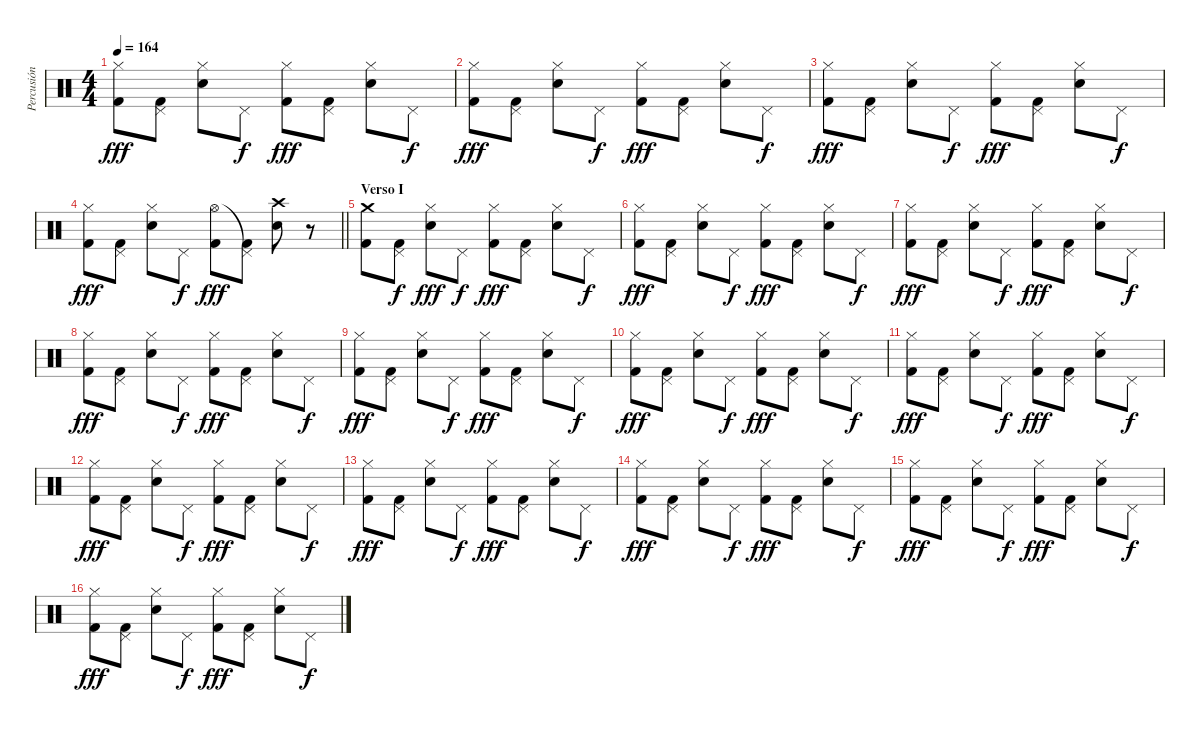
\track ("Percusión" "Percusión") {instrument percussion}
\staff {score}
\articulation defaults
\ts (4 4)
\tempo 164
\clef neutral
\ks c
("Hi-Hat (closed)" "Kick (hit) 2").8{dy fff} ("Pedal Hi-Hat (hit)" "Kick (hit) 2").8 ("Hi-Hat (closed)" "Snare (hit) 2").8 "Pedal Hi-Hat (hit)".8{dy f} ("Hi-Hat (closed)" "Kick (hit) 2").8{dy fff} ("Pedal Hi-Hat (hit)" "Kick (hit) 2").8 ("Hi-Hat (closed)" "Snare (hit) 2").8 "Pedal Hi-Hat (hit)".8{dy f} |
("Hi-Hat (closed)" "Kick (hit) 2").8{dy fff} ("Pedal Hi-Hat (hit)" "Kick (hit) 2").8 ("Hi-Hat (closed)" "Snare (hit) 2").8 "Pedal Hi-Hat (hit)".8{dy f} ("Hi-Hat (closed)" "Kick (hit) 2").8{dy fff} ("Pedal Hi-Hat (hit)" "Kick (hit) 2").8 ("Hi-Hat (closed)" "Snare (hit) 2").8 "Pedal Hi-Hat (hit)".8{dy f} |
("Hi-Hat (closed)" "Kick (hit) 2").8{dy fff} ("Pedal Hi-Hat (hit)" "Kick (hit) 2").8 ("Hi-Hat (closed)" "Snare (hit) 2").8 "Pedal Hi-Hat (hit)".8{dy f} ("Hi-Hat (closed)" "Kick (hit) 2").8{dy fff} ("Pedal Hi-Hat (hit)" "Kick (hit) 2").8 ("Hi-Hat (closed)" "Snare (hit) 2").8 "Pedal Hi-Hat (hit)".8{dy f} |
\barLineRight lightlight
("Hi-Hat (closed)" "Kick (hit) 2").8{dy fff} ("Pedal Hi-Hat (hit)" "Kick (hit) 2").8 ("Hi-Hat (closed)" "Snare (hit) 2").8 "Pedal Hi-Hat (hit)".8{dy f} ("Hi-Hat (open)" "Kick (hit) 2").8{dy fff} ("Pedal Hi-Hat (hit)"{t} "Kick (hit) 2").8 ("Crash high (hit)" "Snare (hit) 2").8 r.8 |
\section ("" "Verso I")
("Crash medium (hit)" "Kick (hit) 2").8 ("Pedal Hi-Hat (hit)" "Kick (hit) 2").8{dy f} ("Hi-Hat (closed)" "Snare (hit) 2").8{dy fff} "Pedal Hi-Hat (hit)".8{dy f} ("Hi-Hat (closed)" "Kick (hit) 2").8{dy fff} ("Pedal Hi-Hat (hit)" "Kick (hit) 2").8 ("Hi-Hat (closed)" "Snare (hit) 2").8 "Pedal Hi-Hat (hit)".8{dy f} |
("Hi-Hat (closed)" "Kick (hit) 2").8{dy fff} ("Pedal Hi-Hat (hit)" "Kick (hit) 2").8 ("Hi-Hat (closed)" "Snare (hit) 2").8 "Pedal Hi-Hat (hit)".8{dy f} ("Hi-Hat (closed)" "Kick (hit) 2").8{dy fff} ("Pedal Hi-Hat (hit)" "Kick (hit) 2").8 ("Hi-Hat (closed)" "Snare (hit) 2").8 "Pedal Hi-Hat (hit)".8{dy f} |
("Hi-Hat (closed)" "Kick (hit) 2").8{dy fff} ("Pedal Hi-Hat (hit)" "Kick (hit) 2").8 ("Hi-Hat (closed)" "Snare (hit) 2").8 "Pedal Hi-Hat (hit)".8{dy f} ("Hi-Hat (closed)" "Kick (hit) 2").8{dy fff} ("Pedal Hi-Hat (hit)" "Kick (hit) 2").8 ("Hi-Hat (closed)" "Snare (hit) 2").8 "Pedal Hi-Hat (hit)".8{dy f} |
("Hi-Hat (closed)" "Kick (hit) 2").8{dy fff} ("Pedal Hi-Hat (hit)" "Kick (hit) 2").8 ("Hi-Hat (closed)" "Snare (hit) 2").8 "Pedal Hi-Hat (hit)".8{dy f} ("Hi-Hat (closed)" "Kick (hit) 2").8{dy fff} ("Pedal Hi-Hat (hit)" "Kick (hit) 2").8 ("Hi-Hat (closed)" "Snare (hit) 2").8 "Pedal Hi-Hat (hit)".8{dy f} |
("Hi-Hat (closed)" "Kick (hit) 2").8{dy fff} ("Pedal Hi-Hat (hit)" "Kick (hit) 2").8 ("Hi-Hat (closed)" "Snare (hit) 2").8 "Pedal Hi-Hat (hit)".8{dy f} ("Hi-Hat (closed)" "Kick (hit) 2").8{dy fff} ("Pedal Hi-Hat (hit)" "Kick (hit) 2").8 ("Hi-Hat (closed)" "Snare (hit) 2").8 "Pedal Hi-Hat (hit)".8{dy f} |
("Hi-Hat (closed)" "Kick (hit) 2").8{dy fff} ("Pedal Hi-Hat (hit)" "Kick (hit) 2").8 ("Hi-Hat (closed)" "Snare (hit) 2").8 "Pedal Hi-Hat (hit)".8{dy f} ("Hi-Hat (closed)" "Kick (hit) 2").8{dy fff} ("Pedal Hi-Hat (hit)" "Kick (hit) 2").8 ("Hi-Hat (closed)" "Snare (hit) 2").8 "Pedal Hi-Hat (hit)".8{dy f} |
("Hi-Hat (closed)" "Kick (hit) 2").8{dy fff} ("Pedal Hi-Hat (hit)" "Kick (hit) 2").8 ("Hi-Hat (closed)" "Snare (hit) 2").8 "Pedal Hi-Hat (hit)".8{dy f} ("Hi-Hat (closed)" "Kick (hit) 2").8{dy fff} ("Pedal Hi-Hat (hit)" "Kick (hit) 2").8 ("Hi-Hat (closed)" "Snare (hit) 2").8 "Pedal Hi-Hat (hit)".8{dy f} |
("Hi-Hat (closed)" "Kick (hit) 2").8{dy fff} ("Pedal Hi-Hat (hit)" "Kick (hit) 2").8 ("Hi-Hat (closed)" "Snare (hit) 2").8 "Pedal Hi-Hat (hit)".8{dy f} ("Hi-Hat (closed)" "Kick (hit) 2").8{dy fff} ("Pedal Hi-Hat (hit)" "Kick (hit) 2").8 ("Hi-Hat (closed)" "Snare (hit) 2").8 "Pedal Hi-Hat (hit)".8{dy f} |
("Hi-Hat (closed)" "Kick (hit) 2").8{dy fff} ("Pedal Hi-Hat (hit)" "Kick (hit) 2").8 ("Hi-Hat (closed)" "Snare (hit) 2").8 "Pedal Hi-Hat (hit)".8{dy f} ("Hi-Hat (closed)" "Kick (hit) 2").8{dy fff} ("Pedal Hi-Hat (hit)" "Kick (hit) 2").8 ("Hi-Hat (closed)" "Snare (hit) 2").8 "Pedal Hi-Hat (hit)".8{dy f} |
("Hi-Hat (closed)" "Kick (hit) 2").8{dy fff} ("Pedal Hi-Hat (hit)" "Kick (hit) 2").8 ("Hi-Hat (closed)" "Snare (hit) 2").8 "Pedal Hi-Hat (hit)".8{dy f} ("Hi-Hat (closed)" "Kick (hit) 2").8{dy fff} ("Pedal Hi-Hat (hit)" "Kick (hit) 2").8 ("Hi-Hat (closed)" "Snare (hit) 2").8 "Pedal Hi-Hat (hit)".8{dy f} |
("Hi-Hat (closed)" "Kick (hit) 2").8{dy fff} ("Pedal Hi-Hat (hit)" "Kick (hit) 2").8 ("Hi-Hat (closed)" "Snare (hit) 2").8 "Pedal Hi-Hat (hit)".8{dy f} ("Hi-Hat (closed)" "Kick (hit) 2").8{dy fff} ("Pedal Hi-Hat (hit)" "Kick (hit) 2").8 ("Hi-Hat (closed)" "Snare (hit) 2").8 "Pedal Hi-Hat (hit)".8{dy f} |
("Hi-Hat (closed)" "Kick (hit) 2").8{dy fff} ("Pedal Hi-Hat (hit)" "Kick (hit) 2").8 ("Hi-Hat (closed)" "Snare (hit) 2").8 "Pedal Hi-Hat (hit)".8{dy f} ("Hi-Hat (closed)" "Kick (hit) 2").8{dy fff} ("Pedal Hi-Hat (hit)" "Kick (hit) 2").8 ("Hi-Hat (closed)" "Snare (hit) 2").8 "Pedal Hi-Hat (hit)".8{dy f}
